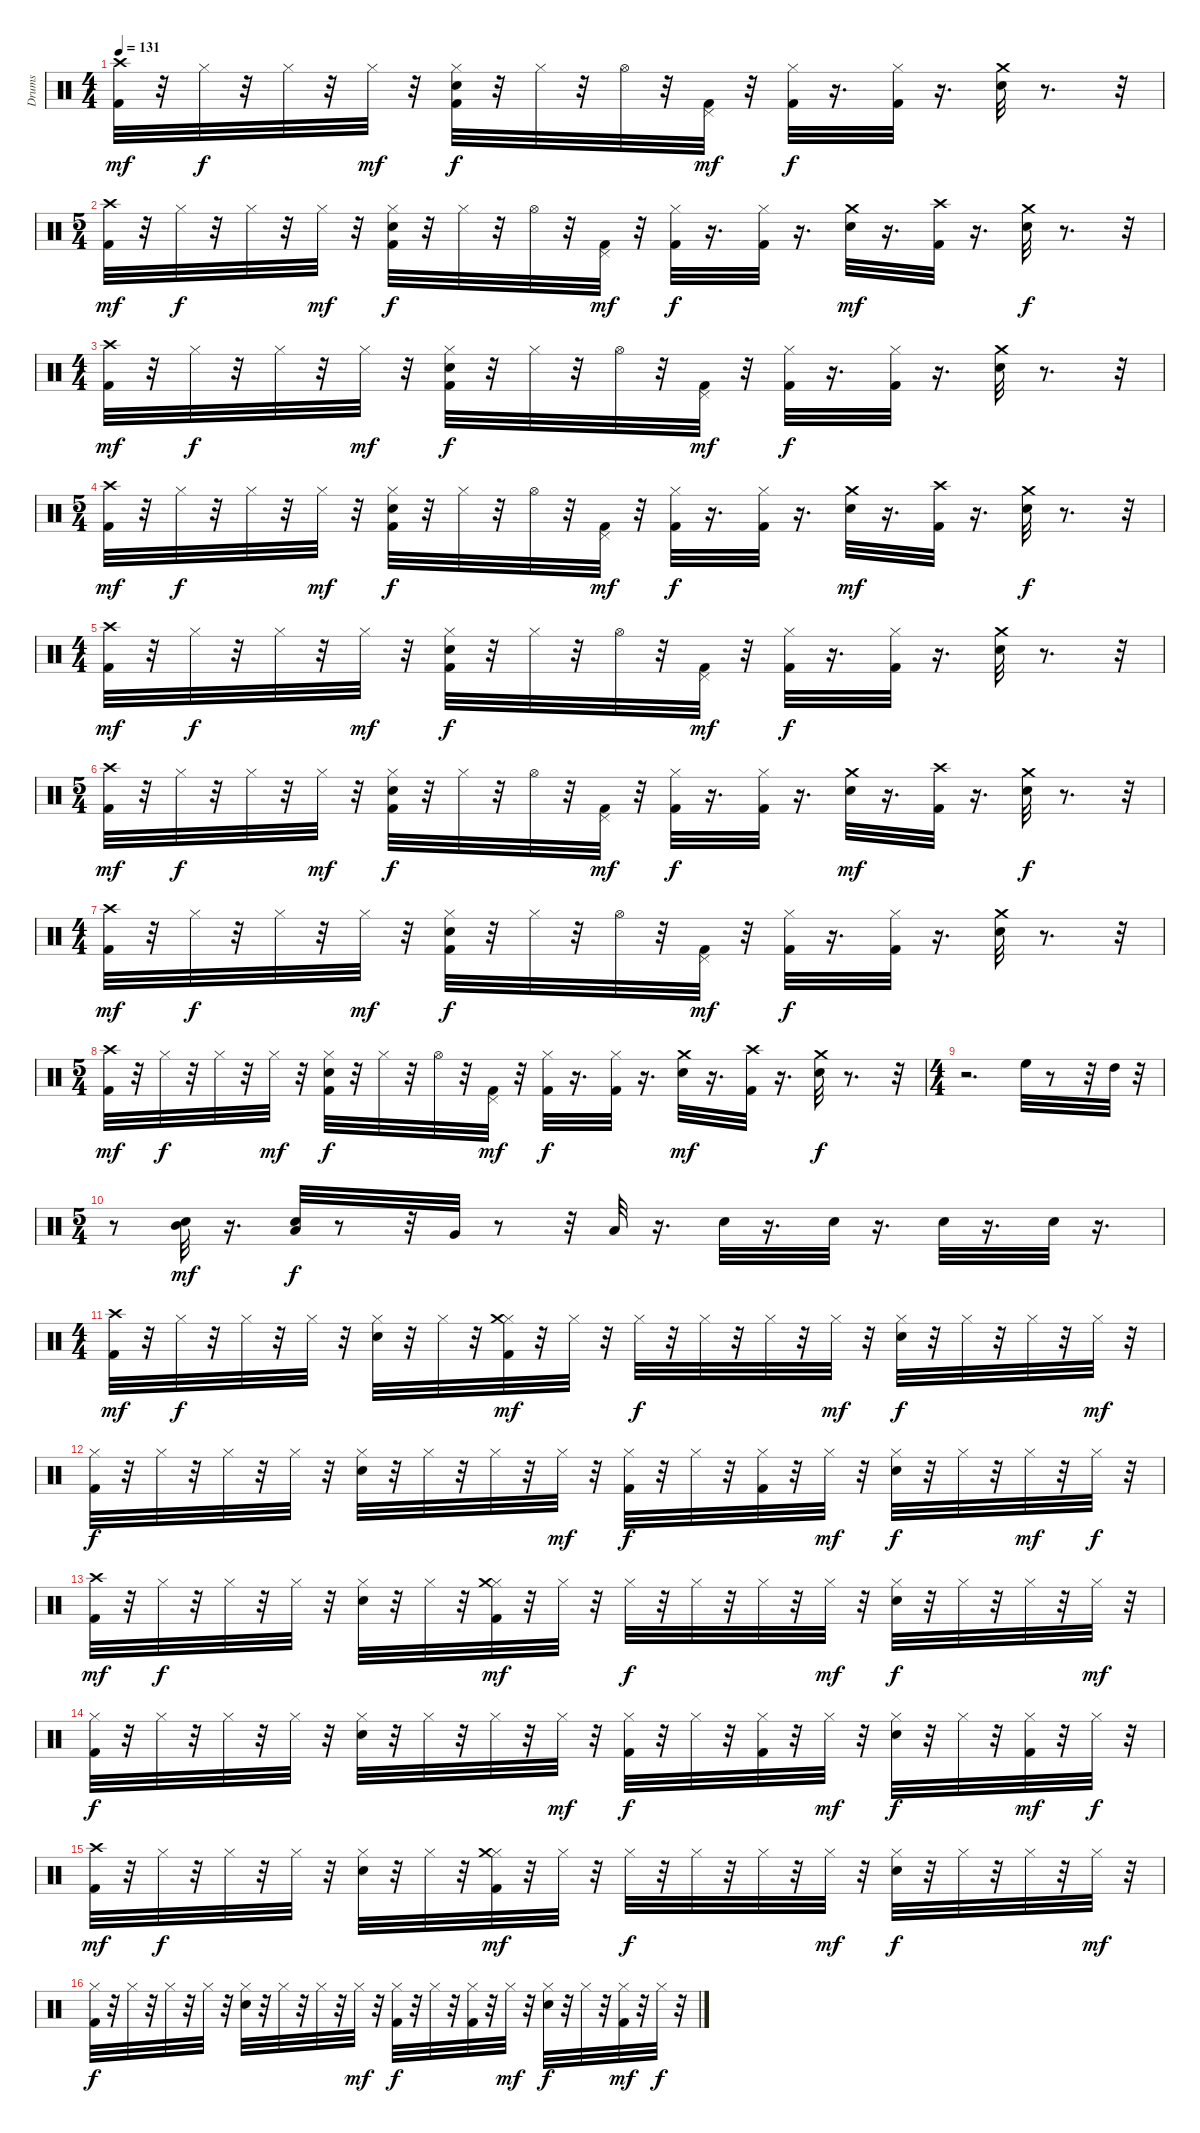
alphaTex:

\track ("Drums" "Drums") {instrument percussion}
\staff {score}
\articulation defaults
\ts (4 4)
\tempo 131
\clef neutral
\ks c
("Kick (hit) 2" "Crash high (hit)").32{dy mf} r.32 "Hi-Hat (closed)".32{dy f} r.32 "Hi-Hat (closed)".32 r.32 "Hi-Hat (closed)".32{dy mf} r.32 ("Snare (hit) 2" "Hi-Hat (closed)" "Kick (hit) 2").32{dy f} r.32 "Hi-Hat (closed)".32 r.32 "Hi-Hat (open)".32 r.32 ("Kick (hit) 2" "Pedal Hi-Hat (hit)").32{dy mf} r.32 ("Hi-Hat (closed)" "Kick (hit) 2").32{dy f} r.16{d} ("Hi-Hat (closed)" "Kick (hit) 2").32 r.16{d} ("Snare (hit) 2" "Crash medium (hit)").32 r.8{d} r.32 |
\ts (5 4)
("Kick (hit) 2" "Crash high (hit)").32{dy mf} r.32 "Hi-Hat (closed)".32{dy f} r.32 "Hi-Hat (closed)".32 r.32 "Hi-Hat (closed)".32{dy mf} r.32 ("Snare (hit) 2" "Hi-Hat (closed)" "Kick (hit) 2").32{dy f} r.32 "Hi-Hat (closed)".32 r.32 "Hi-Hat (open)".32 r.32 ("Kick (hit) 2" "Pedal Hi-Hat (hit)").32{dy mf} r.32 ("Hi-Hat (closed)" "Kick (hit) 2").32{dy f} r.16{d} ("Hi-Hat (closed)" "Kick (hit) 2").32 r.16{d} ("Snare (hit) 2" "Crash medium (hit)").32{dy mf} r.16{d} ("Crash high (hit)" "Kick (hit) 2").32 r.16{d} ("Crash medium (hit)" "Snare (hit) 2").32{dy f} r.8{d} r.32 |
\ts (4 4)
("Kick (hit) 2" "Crash high (hit)").32{dy mf} r.32 "Hi-Hat (closed)".32{dy f} r.32 "Hi-Hat (closed)".32 r.32 "Hi-Hat (closed)".32{dy mf} r.32 ("Snare (hit) 2" "Hi-Hat (closed)" "Kick (hit) 2").32{dy f} r.32 "Hi-Hat (closed)".32 r.32 "Hi-Hat (open)".32 r.32 ("Kick (hit) 2" "Pedal Hi-Hat (hit)").32{dy mf} r.32 ("Hi-Hat (closed)" "Kick (hit) 2").32{dy f} r.16{d} ("Hi-Hat (closed)" "Kick (hit) 2").32 r.16{d} ("Snare (hit) 2" "Crash medium (hit)").32 r.8{d} r.32 |
\ts (5 4)
("Kick (hit) 2" "Crash high (hit)").32{dy mf} r.32 "Hi-Hat (closed)".32{dy f} r.32 "Hi-Hat (closed)".32 r.32 "Hi-Hat (closed)".32{dy mf} r.32 ("Snare (hit) 2" "Hi-Hat (closed)" "Kick (hit) 2").32{dy f} r.32 "Hi-Hat (closed)".32 r.32 "Hi-Hat (open)".32 r.32 ("Kick (hit) 2" "Pedal Hi-Hat (hit)").32{dy mf} r.32 ("Hi-Hat (closed)" "Kick (hit) 2").32{dy f} r.16{d} ("Hi-Hat (closed)" "Kick (hit) 2").32 r.16{d} ("Snare (hit) 2" "Crash medium (hit)").32{dy mf} r.16{d} ("Crash high (hit)" "Kick (hit) 2").32 r.16{d} ("Crash medium (hit)" "Snare (hit) 2").32{dy f} r.8{d} r.32 |
\ts (4 4)
("Kick (hit) 2" "Crash high (hit)").32{dy mf} r.32 "Hi-Hat (closed)".32{dy f} r.32 "Hi-Hat (closed)".32 r.32 "Hi-Hat (closed)".32{dy mf} r.32 ("Snare (hit) 2" "Hi-Hat (closed)" "Kick (hit) 2").32{dy f} r.32 "Hi-Hat (closed)".32 r.32 "Hi-Hat (open)".32 r.32 ("Kick (hit) 2" "Pedal Hi-Hat (hit)").32{dy mf} r.32 ("Hi-Hat (closed)" "Kick (hit) 2").32{dy f} r.16{d} ("Hi-Hat (closed)" "Kick (hit) 2").32 r.16{d} ("Snare (hit) 2" "Crash medium (hit)").32 r.8{d} r.32 |
\ts (5 4)
("Kick (hit) 2" "Crash high (hit)").32{dy mf} r.32 "Hi-Hat (closed)".32{dy f} r.32 "Hi-Hat (closed)".32 r.32 "Hi-Hat (closed)".32{dy mf} r.32 ("Snare (hit) 2" "Hi-Hat (closed)" "Kick (hit) 2").32{dy f} r.32 "Hi-Hat (closed)".32 r.32 "Hi-Hat (open)".32 r.32 ("Kick (hit) 2" "Pedal Hi-Hat (hit)").32{dy mf} r.32 ("Hi-Hat (closed)" "Kick (hit) 2").32{dy f} r.16{d} ("Hi-Hat (closed)" "Kick (hit) 2").32 r.16{d} ("Snare (hit) 2" "Crash medium (hit)").32{dy mf} r.16{d} ("Crash high (hit)" "Kick (hit) 2").32 r.16{d} ("Crash medium (hit)" "Snare (hit) 2").32{dy f} r.8{d} r.32 |
\ts (4 4)
("Kick (hit) 2" "Crash high (hit)").32{dy mf} r.32 "Hi-Hat (closed)".32{dy f} r.32 "Hi-Hat (closed)".32 r.32 "Hi-Hat (closed)".32{dy mf} r.32 ("Snare (hit) 2" "Hi-Hat (closed)" "Kick (hit) 2").32{dy f} r.32 "Hi-Hat (closed)".32 r.32 "Hi-Hat (open)".32 r.32 ("Kick (hit) 2" "Pedal Hi-Hat (hit)").32{dy mf} r.32 ("Hi-Hat (closed)" "Kick (hit) 2").32{dy f} r.16{d} ("Hi-Hat (closed)" "Kick (hit) 2").32 r.16{d} ("Snare (hit) 2" "Crash medium (hit)").32 r.8{d} r.32 |
\ts (5 4)
("Kick (hit) 2" "Crash high (hit)").32{dy mf} r.32 "Hi-Hat (closed)".32{dy f} r.32 "Hi-Hat (closed)".32 r.32 "Hi-Hat (closed)".32{dy mf} r.32 ("Snare (hit) 2" "Hi-Hat (closed)" "Kick (hit) 2").32{dy f} r.32 "Hi-Hat (closed)".32 r.32 "Hi-Hat (open)".32 r.32 ("Kick (hit) 2" "Pedal Hi-Hat (hit)").32{dy mf} r.32 ("Hi-Hat (closed)" "Kick (hit) 2").32{dy f} r.16{d} ("Hi-Hat (closed)" "Kick (hit) 2").32 r.16{d} ("Snare (hit) 2" "Crash medium (hit)").32{dy mf} r.16{d} ("Crash high (hit)" "Kick (hit) 2").32 r.16{d} ("Crash medium (hit)" "Snare (hit) 2").32{dy f} r.8{d} r.32 |
\ts (4 4)
r.2{d} "High Floor Tom (hit)".32 r.8 r.32 "High Tom (hit)".32 r.32 |
\ts (5 4)
r.8 ("Snare (hit) 2" "Mid Tom (hit)").32{dy mf} r.16{d} ("Snare (hit) 2" "Low Tom (hit)").32{dy f} r.8 r.32 "Very Low Tom (hit)".32 r.8 r.32 "Low Floor Tom (hit)".32 r.16{d} "Snare (hit) 2".32 r.16{d} "Snare (hit) 2".32 r.16{d} "Snare (hit) 2".32 r.16{d} "Snare (hit) 2".32 r.16{d} |
\ts (4 4)
("Crash high (hit)" "Kick (hit) 2").32{dy mf} r.32 "Hi-Hat (closed)".32{dy f} r.32 "Hi-Hat (closed)".32 r.32 "Hi-Hat (closed)".32 r.32 ("Hi-Hat (closed)" "Snare (hit) 2").32 r.32 "Hi-Hat (closed)".32 r.32 ("Kick (hit) 2" "Hi-Hat (closed)" "Crash medium (hit)").32{dy mf} r.32 "Hi-Hat (closed)".32 r.32 "Hi-Hat (closed)".32{dy f} r.32 "Hi-Hat (closed)".32 r.32 "Hi-Hat (closed)".32 r.32 "Hi-Hat (closed)".32{dy mf} r.32 ("Snare (hit) 2" "Hi-Hat (closed)").32{dy f} r.32 "Hi-Hat (closed)".32 r.32 "Hi-Hat (closed)".32 r.32 "Hi-Hat (closed)".32{dy mf} r.32 |
("Kick (hit) 2" "Hi-Hat (closed)").32{dy f} r.32 "Hi-Hat (closed)".32 r.32 "Hi-Hat (closed)".32 r.32 "Hi-Hat (closed)".32 r.32 ("Snare (hit) 2" "Hi-Hat (closed)").32 r.32 "Hi-Hat (closed)".32 r.32 "Hi-Hat (closed)".32 r.32 "Hi-Hat (closed)".32{dy mf} r.32 ("Kick (hit) 2" "Hi-Hat (closed)").32{dy f} r.32 "Hi-Hat (closed)".32 r.32 ("Kick (hit) 2" "Hi-Hat (closed)").32 r.32 "Hi-Hat (closed)".32{dy mf} r.32 ("Snare (hit) 2" "Hi-Hat (closed)").32{dy f} r.32 "Hi-Hat (closed)".32 r.32 "Hi-Hat (closed)".32{dy mf} r.32 "Hi-Hat (closed)".32{dy f} r.32 |
("Crash high (hit)" "Kick (hit) 2").32{dy mf} r.32 "Hi-Hat (closed)".32{dy f} r.32 "Hi-Hat (closed)".32 r.32 "Hi-Hat (closed)".32 r.32 ("Hi-Hat (closed)" "Snare (hit) 2").32 r.32 "Hi-Hat (closed)".32 r.32 ("Kick (hit) 2" "Hi-Hat (closed)" "Crash medium (hit)").32{dy mf} r.32 "Hi-Hat (closed)".32 r.32 "Hi-Hat (closed)".32{dy f} r.32 "Hi-Hat (closed)".32 r.32 "Hi-Hat (closed)".32 r.32 "Hi-Hat (closed)".32{dy mf} r.32 ("Snare (hit) 2" "Hi-Hat (closed)").32{dy f} r.32 "Hi-Hat (closed)".32 r.32 "Hi-Hat (closed)".32 r.32 "Hi-Hat (closed)".32{dy mf} r.32 |
("Kick (hit) 2" "Hi-Hat (closed)").32{dy f} r.32 "Hi-Hat (closed)".32 r.32 "Hi-Hat (closed)".32 r.32 "Hi-Hat (closed)".32 r.32 ("Snare (hit) 2" "Hi-Hat (closed)").32 r.32 "Hi-Hat (closed)".32 r.32 "Hi-Hat (closed)".32 r.32 "Hi-Hat (closed)".32{dy mf} r.32 ("Kick (hit) 2" "Hi-Hat (closed)").32{dy f} r.32 "Hi-Hat (closed)".32 r.32 ("Kick (hit) 2" "Hi-Hat (closed)").32 r.32 "Hi-Hat (closed)".32{dy mf} r.32 ("Snare (hit) 2" "Hi-Hat (closed)").32{dy f} r.32 "Hi-Hat (closed)".32 r.32 ("Kick (hit) 2" "Hi-Hat (closed)").32{dy mf} r.32 "Hi-Hat (closed)".32{dy f} r.32 |
("Crash high (hit)" "Kick (hit) 2").32{dy mf} r.32 "Hi-Hat (closed)".32{dy f} r.32 "Hi-Hat (closed)".32 r.32 "Hi-Hat (closed)".32 r.32 ("Hi-Hat (closed)" "Snare (hit) 2").32 r.32 "Hi-Hat (closed)".32 r.32 ("Kick (hit) 2" "Hi-Hat (closed)" "Crash medium (hit)").32{dy mf} r.32 "Hi-Hat (closed)".32 r.32 "Hi-Hat (closed)".32{dy f} r.32 "Hi-Hat (closed)".32 r.32 "Hi-Hat (closed)".32 r.32 "Hi-Hat (closed)".32{dy mf} r.32 ("Snare (hit) 2" "Hi-Hat (closed)").32{dy f} r.32 "Hi-Hat (closed)".32 r.32 "Hi-Hat (closed)".32 r.32 "Hi-Hat (closed)".32{dy mf} r.32 |
("Kick (hit) 2" "Hi-Hat (closed)").32{dy f} r.32 "Hi-Hat (closed)".32 r.32 "Hi-Hat (closed)".32 r.32 "Hi-Hat (closed)".32 r.32 ("Snare (hit) 2" "Hi-Hat (closed)").32 r.32 "Hi-Hat (closed)".32 r.32 "Hi-Hat (closed)".32 r.32 "Hi-Hat (closed)".32{dy mf} r.32 ("Kick (hit) 2" "Hi-Hat (closed)").32{dy f} r.32 "Hi-Hat (closed)".32 r.32 ("Kick (hit) 2" "Hi-Hat (closed)").32 r.32 "Hi-Hat (closed)".32{dy mf} r.32 ("Snare (hit) 2" "Hi-Hat (closed)").32{dy f} r.32 "Hi-Hat (closed)".32 r.32 ("Kick (hit) 2" "Hi-Hat (closed)").32{dy mf} r.32 "Hi-Hat (closed)".32{dy f} r.32
